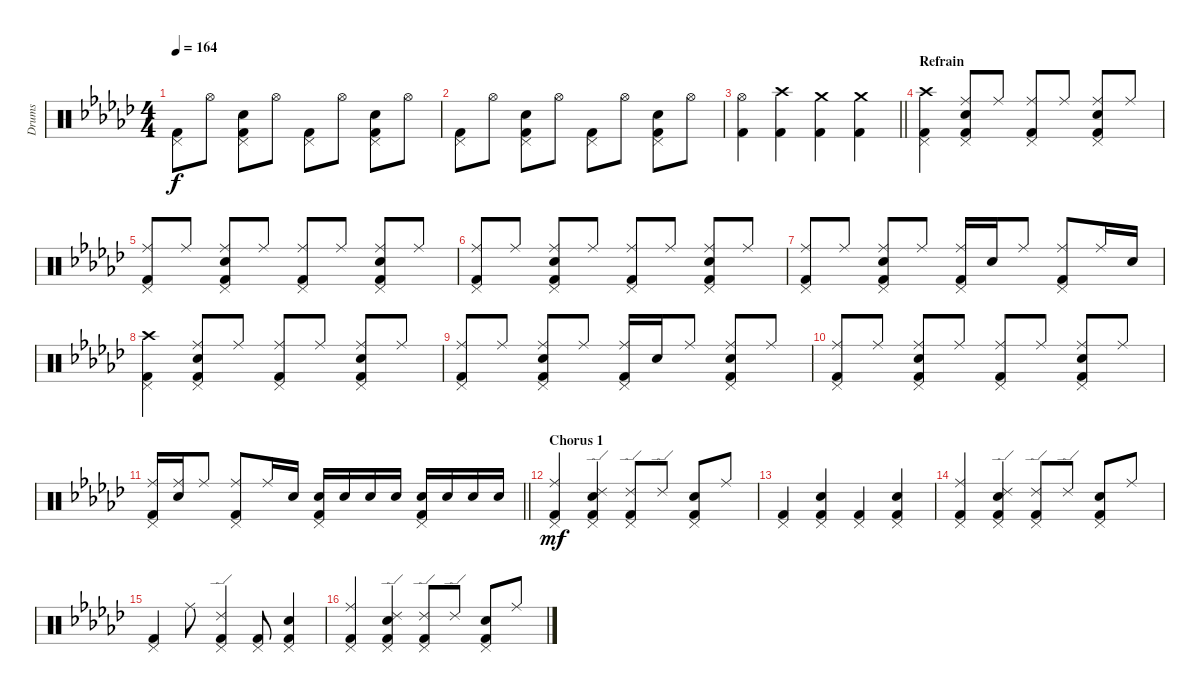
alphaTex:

\track ("Drums" "Drums") {instrument percussion}
\staff {score}
\articulation defaults
\ts (4 4)
\tempo 164
\clef neutral
\ks gb
("Pedal Hi-Hat (hit)" "Kick (hit) 2").8{dy f} "Hi-Hat (open)".8 ("Snare (hit) 2" "Pedal Hi-Hat (hit)" "Kick (hit) 2").8 "Hi-Hat (open)".8 ("Pedal Hi-Hat (hit)" "Kick (hit) 2").8 "Hi-Hat (open)".8 ("Snare (hit) 2" "Pedal Hi-Hat (hit)" "Kick (hit) 2").8 "Hi-Hat (open)".8 |
("Pedal Hi-Hat (hit)" "Kick (hit) 2").8 "Hi-Hat (open)".8 ("Snare (hit) 2" "Pedal Hi-Hat (hit)" "Kick (hit) 2").8 "Hi-Hat (open)".8 ("Pedal Hi-Hat (hit)" "Kick (hit) 2").8 "Hi-Hat (open)".8 ("Snare (hit) 2" "Pedal Hi-Hat (hit)" "Kick (hit) 2").8 "Hi-Hat (open)".8 |
\barLineRight lightlight
("Hi-Hat (open)" "Kick (hit) 2").4 ("Crash high (hit)" "Kick (hit) 2").4 ("Crash medium (hit)" "Kick (hit) 2").4 ("Crash medium (hit)" "Kick (hit) 2").4 |
\section ("" "Refrain")
("Crash high (hit)" "Pedal Hi-Hat (hit)" "Kick (hit) 2").4 ("Ride (middle)" "Snare (hit) 2" "Pedal Hi-Hat (hit)" "Kick (hit) 2").8 "Ride (middle)".8 ("Ride (middle)" "Pedal Hi-Hat (hit)" "Kick (hit) 2").8 "Ride (middle)".8 ("Ride (middle)" "Snare (hit) 2" "Pedal Hi-Hat (hit)" "Kick (hit) 2").8 "Ride (middle)".8 |
("Ride (middle)" "Pedal Hi-Hat (hit)" "Kick (hit) 2").8 "Ride (middle)".8 ("Ride (middle)" "Snare (hit) 2" "Pedal Hi-Hat (hit)" "Kick (hit) 2").8 "Ride (middle)".8 ("Ride (middle)" "Pedal Hi-Hat (hit)" "Kick (hit) 2").8 "Ride (middle)".8 ("Ride (middle)" "Snare (hit) 2" "Pedal Hi-Hat (hit)" "Kick (hit) 2").8 "Ride (middle)".8 |
("Ride (middle)" "Pedal Hi-Hat (hit)" "Kick (hit) 2").8 "Ride (middle)".8 ("Ride (middle)" "Snare (hit) 2" "Pedal Hi-Hat (hit)" "Kick (hit) 2").8 "Ride (middle)".8 ("Ride (middle)" "Pedal Hi-Hat (hit)" "Kick (hit) 2").8 "Ride (middle)".8 ("Ride (middle)" "Snare (hit) 2" "Pedal Hi-Hat (hit)" "Kick (hit) 2").8 "Ride (middle)".8 |
("Ride (middle)" "Pedal Hi-Hat (hit)" "Kick (hit) 2").8 "Ride (middle)".8 ("Ride (middle)" "Snare (hit) 2" "Pedal Hi-Hat (hit)" "Kick (hit) 2").8 "Ride (middle)".8 ("Ride (middle)" "Pedal Hi-Hat (hit)" "Kick (hit) 2").16 "Snare (hit) 2".16 "Ride (middle)".8 ("Ride (middle)" "Pedal Hi-Hat (hit)" "Kick (hit) 2").8 "Ride (middle)".16 "Snare (hit) 2".16 |
("Crash high (hit)" "Pedal Hi-Hat (hit)" "Kick (hit) 2").4 ("Ride (middle)" "Snare (hit) 2" "Pedal Hi-Hat (hit)" "Kick (hit) 2").8 "Ride (middle)".8 ("Ride (middle)" "Pedal Hi-Hat (hit)" "Kick (hit) 2").8 "Ride (middle)".8 ("Ride (middle)" "Snare (hit) 2" "Pedal Hi-Hat (hit)" "Kick (hit) 2").8 "Ride (middle)".8 |
("Ride (middle)" "Pedal Hi-Hat (hit)" "Kick (hit) 2").8 "Ride (middle)".8 ("Ride (middle)" "Snare (hit) 2" "Pedal Hi-Hat (hit)" "Kick (hit) 2").8 "Ride (middle)".8 ("Ride (middle)" "Pedal Hi-Hat (hit)" "Kick (hit) 2").16 "Snare (hit) 2".16 "Ride (middle)".8 ("Ride (middle)" "Snare (hit) 2" "Pedal Hi-Hat (hit)" "Kick (hit) 2").8 "Ride (middle)".8 |
("Ride (middle)" "Pedal Hi-Hat (hit)" "Kick (hit) 2").8 "Ride (middle)".8 ("Ride (middle)" "Snare (hit) 2" "Pedal Hi-Hat (hit)" "Kick (hit) 2").8 "Ride (middle)".8 ("Ride (middle)" "Pedal Hi-Hat (hit)" "Kick (hit) 2").8 "Ride (middle)".8 ("Ride (middle)" "Snare (hit) 2" "Pedal Hi-Hat (hit)" "Kick (hit) 2").8 "Ride (middle)".8 |
\barLineRight lightlight
("Ride (middle)" "Pedal Hi-Hat (hit)" "Kick (hit) 2").16 ("Ride (middle)" "Snare (hit) 2").16 "Ride (middle)".8 ("Ride (middle)" "Pedal Hi-Hat (hit)" "Kick (hit) 2").8 "Ride (middle)".16 "Snare (hit) 2".16 ("Snare (hit) 2" "Pedal Hi-Hat (hit)" "Kick (hit) 2").16 "Snare (hit) 2".16 "Snare (hit) 2".16 "Snare (hit) 2".16 ("Snare (hit) 2" "Pedal Hi-Hat (hit)" "Kick (hit) 2").16 "Snare (hit) 2".16 "Snare (hit) 2".16 "Snare (hit) 2".16 |
\section ("" "Chorus 1")
("Ride (middle)" "Pedal Hi-Hat (hit)" "Kick (hit) 2").4{dy mf} ("Ride (edge) 2" "Snare (hit) 2" "Pedal Hi-Hat (hit)" "Kick (hit) 2").4 ("Ride (edge) 2" "Pedal Hi-Hat (hit)" "Kick (hit) 2").8 "Ride (edge) 2".8 ("Snare (hit) 2" "Pedal Hi-Hat (hit)" "Kick (hit) 2").8 "Ride (middle)".8 |
("Pedal Hi-Hat (hit)" "Kick (hit) 2").4 ("Snare (hit) 2" "Pedal Hi-Hat (hit)" "Kick (hit) 2").4 ("Pedal Hi-Hat (hit)" "Kick (hit) 2").4 ("Snare (hit) 2" "Pedal Hi-Hat (hit)" "Kick (hit) 2").4 |
("Ride (middle)" "Pedal Hi-Hat (hit)" "Kick (hit) 2").4 ("Ride (edge) 2" "Snare (hit) 2" "Pedal Hi-Hat (hit)" "Kick (hit) 2").4 ("Ride (edge) 2" "Pedal Hi-Hat (hit)" "Kick (hit) 2").8 "Ride (edge) 2".8 ("Snare (hit) 2" "Pedal Hi-Hat (hit)" "Kick (hit) 2").8 "Ride (middle)".8 |
("Pedal Hi-Hat (hit)" "Kick (hit) 2").4 "Ride (middle)".8 ("Ride (edge) 2" "Pedal Hi-Hat (hit)" "Kick (hit) 2").4 ("Pedal Hi-Hat (hit)" "Kick (hit) 2").8 ("Snare (hit) 2" "Pedal Hi-Hat (hit)" "Kick (hit) 2").4 |
("Ride (middle)" "Pedal Hi-Hat (hit)" "Kick (hit) 2").4 ("Ride (edge) 2" "Snare (hit) 2" "Pedal Hi-Hat (hit)" "Kick (hit) 2").4 ("Ride (edge) 2" "Pedal Hi-Hat (hit)" "Kick (hit) 2").8 "Ride (edge) 2".8 ("Snare (hit) 2" "Pedal Hi-Hat (hit)" "Kick (hit) 2").8 "Ride (middle)".8
